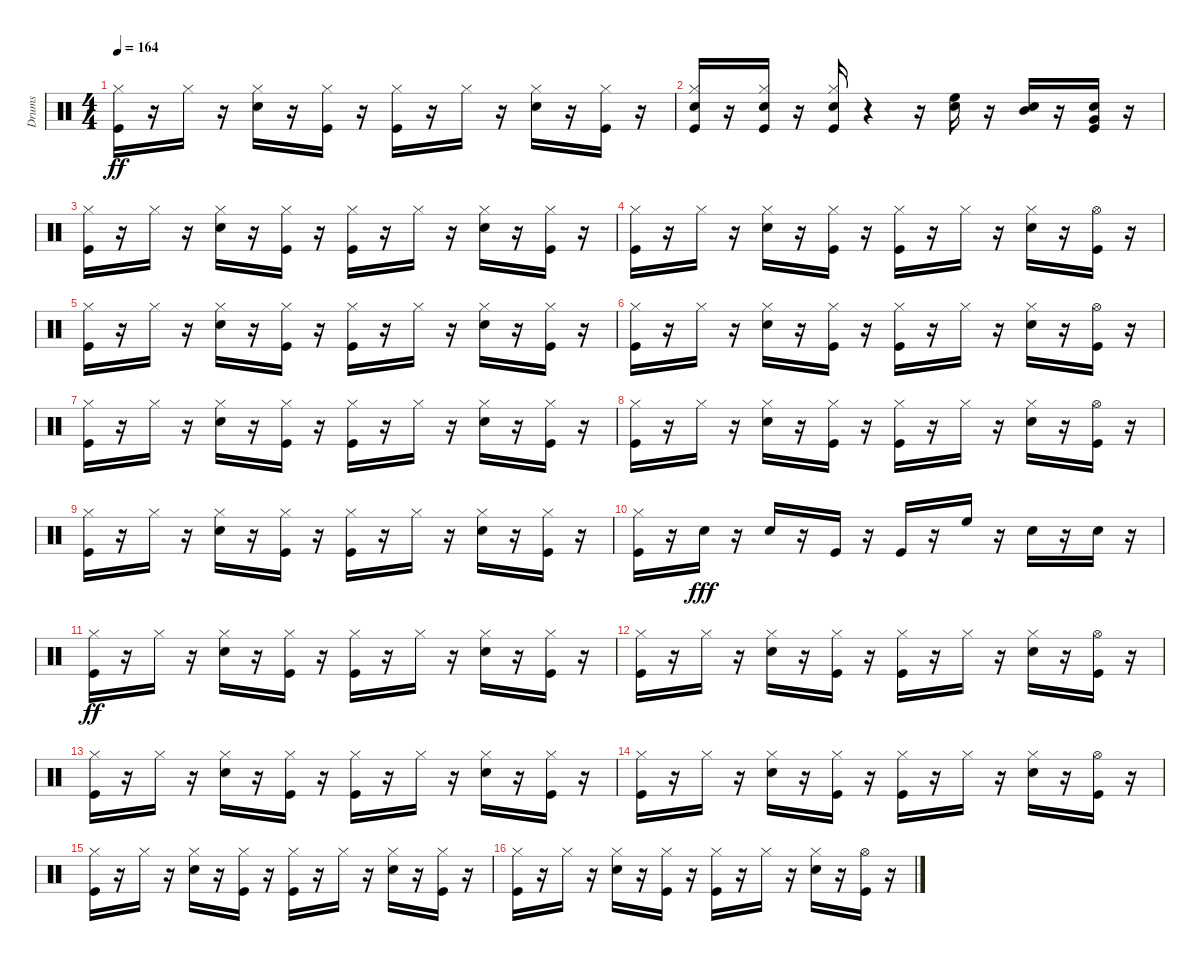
\track ("Drums" "Drums") {instrument percussion}
\staff {score}
\articulation defaults
\ts (4 4)
\tempo 164
\clef neutral
\ks c
("Kick (hit)" "Hi-Hat (closed)").16{dy ff} r.16 "Hi-Hat (closed)".16 r.16 ("Electric Snare (hit)" "Hi-Hat (closed)").16 r.16 ("Kick (hit)" "Hi-Hat (closed)").16 r.16 ("Kick (hit)" "Hi-Hat (closed)").16 r.16 "Hi-Hat (closed)".16 r.16 ("Electric Snare (hit)" "Hi-Hat (closed)").16 r.16 ("Kick (hit)" "Hi-Hat (closed)").16 r.16 |
("Kick (hit)" "Electric Snare (hit)" "Hi-Hat (closed)").16 r.16 ("Electric Snare (hit)" "Hi-Hat (closed)" "Kick (hit)").16 r.16 ("Electric Snare (hit)" "Hi-Hat (closed)" "Kick (hit)").16 r.4 r.16 ("Electric Snare (hit)" "High Floor Tom (hit)").16 r.16 ("Electric Snare (hit)" "Mid Tom (hit)").16 r.16 ("Kick (hit)" "Electric Snare (hit)" "Very Low Tom (hit)").16 r.16 |
("Kick (hit)" "Hi-Hat (closed)").16 r.16 "Hi-Hat (closed)".16 r.16 ("Electric Snare (hit)" "Hi-Hat (closed)").16 r.16 ("Kick (hit)" "Hi-Hat (closed)").16 r.16 ("Kick (hit)" "Hi-Hat (closed)").16 r.16 "Hi-Hat (closed)".16 r.16 ("Electric Snare (hit)" "Hi-Hat (closed)").16 r.16 ("Kick (hit)" "Hi-Hat (closed)").16 r.16 |
("Kick (hit)" "Hi-Hat (closed)").16 r.16 "Hi-Hat (closed)".16 r.16 ("Electric Snare (hit)" "Hi-Hat (closed)").16 r.16 ("Kick (hit)" "Hi-Hat (closed)").16 r.16 ("Kick (hit)" "Hi-Hat (closed)").16 r.16 "Hi-Hat (closed)".16 r.16 ("Electric Snare (hit)" "Hi-Hat (closed)").16 r.16 ("Kick (hit)" "Hi-Hat (open)").16 r.16 |
("Kick (hit)" "Hi-Hat (closed)").16 r.16 "Hi-Hat (closed)".16 r.16 ("Electric Snare (hit)" "Hi-Hat (closed)").16 r.16 ("Kick (hit)" "Hi-Hat (closed)").16 r.16 ("Kick (hit)" "Hi-Hat (closed)").16 r.16 "Hi-Hat (closed)".16 r.16 ("Electric Snare (hit)" "Hi-Hat (closed)").16 r.16 ("Kick (hit)" "Hi-Hat (closed)").16 r.16 |
("Kick (hit)" "Hi-Hat (closed)").16 r.16 "Hi-Hat (closed)".16 r.16 ("Electric Snare (hit)" "Hi-Hat (closed)").16 r.16 ("Kick (hit)" "Hi-Hat (closed)").16 r.16 ("Kick (hit)" "Hi-Hat (closed)").16 r.16 "Hi-Hat (closed)".16 r.16 ("Electric Snare (hit)" "Hi-Hat (closed)").16 r.16 ("Kick (hit)" "Hi-Hat (open)").16 r.16 |
("Kick (hit)" "Hi-Hat (closed)").16 r.16 "Hi-Hat (closed)".16 r.16 ("Electric Snare (hit)" "Hi-Hat (closed)").16 r.16 ("Kick (hit)" "Hi-Hat (closed)").16 r.16 ("Kick (hit)" "Hi-Hat (closed)").16 r.16 "Hi-Hat (closed)".16 r.16 ("Electric Snare (hit)" "Hi-Hat (closed)").16 r.16 ("Kick (hit)" "Hi-Hat (closed)").16 r.16 |
("Kick (hit)" "Hi-Hat (closed)").16 r.16 "Hi-Hat (closed)".16 r.16 ("Electric Snare (hit)" "Hi-Hat (closed)").16 r.16 ("Kick (hit)" "Hi-Hat (closed)").16 r.16 ("Kick (hit)" "Hi-Hat (closed)").16 r.16 "Hi-Hat (closed)".16 r.16 ("Electric Snare (hit)" "Hi-Hat (closed)").16 r.16 ("Kick (hit)" "Hi-Hat (open)").16 r.16 |
("Kick (hit)" "Hi-Hat (closed)").16 r.16 "Hi-Hat (closed)".16 r.16 ("Electric Snare (hit)" "Hi-Hat (closed)").16 r.16 ("Kick (hit)" "Hi-Hat (closed)").16 r.16 ("Kick (hit)" "Hi-Hat (closed)").16 r.16 "Hi-Hat (closed)".16 r.16 ("Electric Snare (hit)" "Hi-Hat (closed)").16 r.16 ("Kick (hit)" "Hi-Hat (closed)").16 r.16 |
("Kick (hit)" "Hi-Hat (closed)").16 r.16 "Electric Snare (hit)".16{dy fff} r.16 "Electric Snare (hit)".16 r.16 "Kick (hit)".16 r.16 "Kick (hit)".16 r.16 "High Floor Tom (hit)".16 r.16 "Electric Snare (hit)".16 r.16 "Electric Snare (hit)".16 r.16 |
("Kick (hit)" "Hi-Hat (closed)").16{dy ff} r.16 "Hi-Hat (closed)".16 r.16 ("Electric Snare (hit)" "Hi-Hat (closed)").16 r.16 ("Kick (hit)" "Hi-Hat (closed)").16 r.16 ("Kick (hit)" "Hi-Hat (closed)").16 r.16 "Hi-Hat (closed)".16 r.16 ("Electric Snare (hit)" "Hi-Hat (closed)").16 r.16 ("Kick (hit)" "Hi-Hat (closed)").16 r.16 |
("Kick (hit)" "Hi-Hat (closed)").16 r.16 "Hi-Hat (closed)".16 r.16 ("Electric Snare (hit)" "Hi-Hat (closed)").16 r.16 ("Kick (hit)" "Hi-Hat (closed)").16 r.16 ("Kick (hit)" "Hi-Hat (closed)").16 r.16 "Hi-Hat (closed)".16 r.16 ("Electric Snare (hit)" "Hi-Hat (closed)").16 r.16 ("Kick (hit)" "Hi-Hat (open)").16 r.16 |
("Kick (hit)" "Hi-Hat (closed)").16 r.16 "Hi-Hat (closed)".16 r.16 ("Electric Snare (hit)" "Hi-Hat (closed)").16 r.16 ("Kick (hit)" "Hi-Hat (closed)").16 r.16 ("Kick (hit)" "Hi-Hat (closed)").16 r.16 "Hi-Hat (closed)".16 r.16 ("Electric Snare (hit)" "Hi-Hat (closed)").16 r.16 ("Kick (hit)" "Hi-Hat (closed)").16 r.16 |
("Kick (hit)" "Hi-Hat (closed)").16 r.16 "Hi-Hat (closed)".16 r.16 ("Electric Snare (hit)" "Hi-Hat (closed)").16 r.16 ("Kick (hit)" "Hi-Hat (closed)").16 r.16 ("Kick (hit)" "Hi-Hat (closed)").16 r.16 "Hi-Hat (closed)".16 r.16 ("Electric Snare (hit)" "Hi-Hat (closed)").16 r.16 ("Kick (hit)" "Hi-Hat (open)").16 r.16 |
("Kick (hit)" "Hi-Hat (closed)").16 r.16 "Hi-Hat (closed)".16 r.16 ("Electric Snare (hit)" "Hi-Hat (closed)").16 r.16 ("Kick (hit)" "Hi-Hat (closed)").16 r.16 ("Kick (hit)" "Hi-Hat (closed)").16 r.16 "Hi-Hat (closed)".16 r.16 ("Electric Snare (hit)" "Hi-Hat (closed)").16 r.16 ("Kick (hit)" "Hi-Hat (closed)").16 r.16 |
("Kick (hit)" "Hi-Hat (closed)").16 r.16 "Hi-Hat (closed)".16 r.16 ("Electric Snare (hit)" "Hi-Hat (closed)").16 r.16 ("Kick (hit)" "Hi-Hat (closed)").16 r.16 ("Kick (hit)" "Hi-Hat (closed)").16 r.16 "Hi-Hat (closed)".16 r.16 ("Electric Snare (hit)" "Hi-Hat (closed)").16 r.16 ("Kick (hit)" "Hi-Hat (open)").16 r.16
